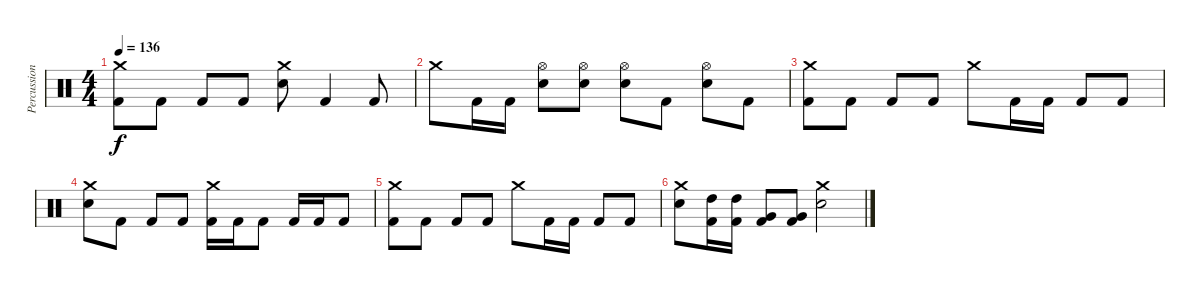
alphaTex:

\track ("Percussion" "Percussion") {instrument percussion}
\staff {score}
\articulation defaults
\ts (4 4)
\tempo 136
\clef neutral
\ks c
("Crash medium (hit)" "Kick (hit) 2").8{dy f} "Kick (hit) 2".8 "Kick (hit) 2".8 "Kick (hit) 2".8 ("Crash medium (hit)" "Snare (hit) 2").8 "Kick (hit) 2".4 "Kick (hit) 2".8 |
"Crash medium (hit)".8 "Kick (hit) 2".16 "Kick (hit) 2".16 ("Hi-Hat (open)" "Snare (hit) 2").8 ("Hi-Hat (open)" "Snare (hit) 2").8 ("Hi-Hat (open)" "Snare (hit) 2").8 "Kick (hit) 2".8 ("Hi-Hat (open)" "Snare (hit) 2").8 "Kick (hit) 2".8 |
("Crash medium (hit)" "Kick (hit) 2").8 "Kick (hit) 2".8 "Kick (hit) 2".8 "Kick (hit) 2".8 "Crash medium (hit)".8 "Kick (hit) 2".16 "Kick (hit) 2".16 "Kick (hit) 2".8 "Kick (hit) 2".8 |
("Crash medium (hit)" "Snare (hit) 2").8 "Kick (hit) 2".8 "Kick (hit) 2".8 "Kick (hit) 2".8 ("Crash medium (hit)" "Kick (hit) 2").16 "Kick (hit) 2".16 "Kick (hit) 2".8 "Kick (hit) 2".16 "Kick (hit) 2".16 "Kick (hit) 2".8 |
("Crash medium (hit)" "Kick (hit) 2").8 "Kick (hit) 2".8 "Kick (hit) 2".8 "Kick (hit) 2".8 "Crash medium (hit)".8 "Kick (hit) 2".16 "Kick (hit) 2".16 "Kick (hit) 2".8 "Kick (hit) 2".8 |
("Crash medium (hit)" "Snare (hit) 2").8 ("High Tom (hit)" "Kick (hit) 2").16 ("High Tom (hit)" "Kick (hit) 2").16 ("Very Low Tom (hit)" "Kick (hit) 2").8 ("Very Low Tom (hit)" "Kick (hit) 2").8 ("Crash medium (hit)" "Snare (hit) 2").2
